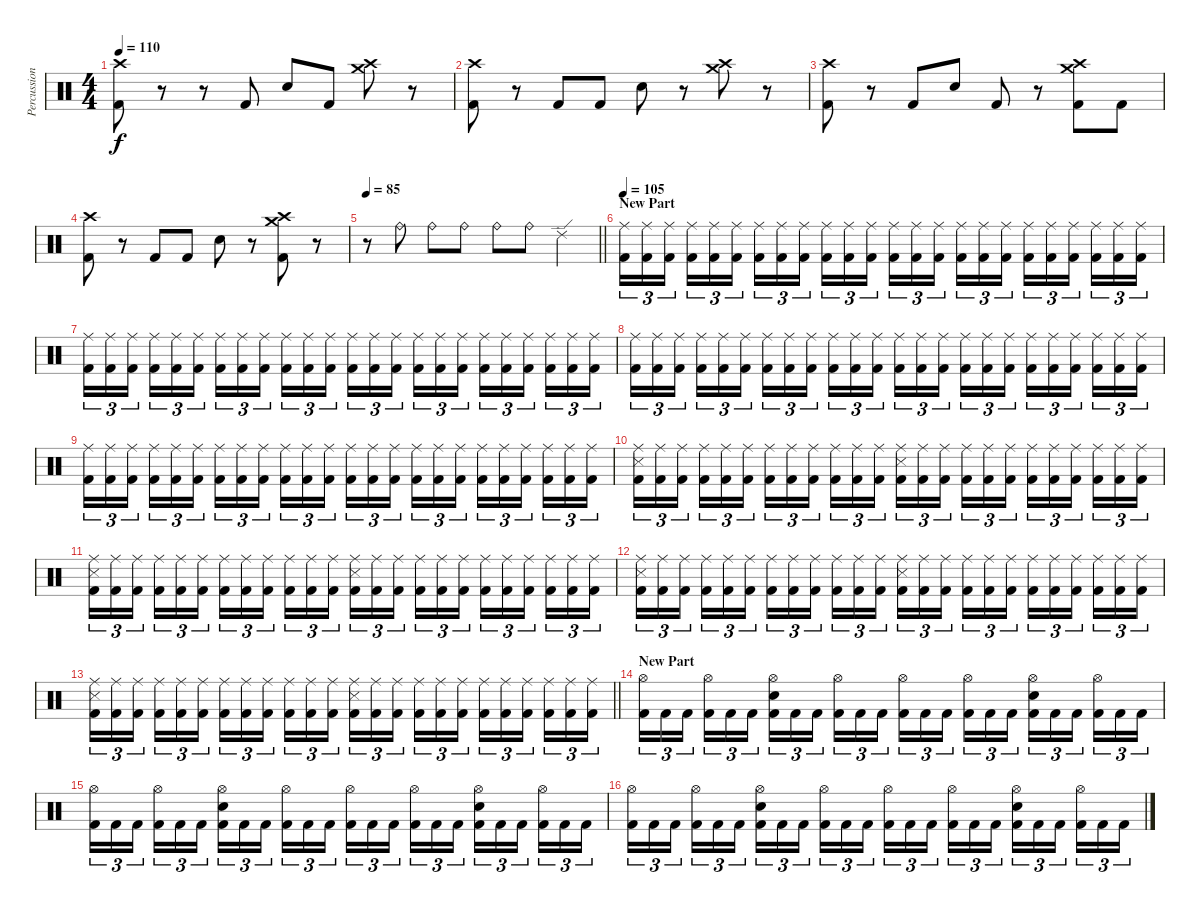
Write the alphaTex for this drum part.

\track ("Percussion" "Percussion") {instrument percussion}
\staff {score}
\articulation defaults
\ts (4 4)
\tempo 110
\clef neutral
\ks c
("Kick (hit) 2" "Crash high (hit)").8{dy f} r.8 r.8 "Kick (hit) 2".8 "Electric Snare (hit)".8 "Kick (hit) 2".8 ("Crash medium (hit)" "Crash high (hit)").8 r.8 |
("Kick (hit) 2" "Crash high (hit)").8 r.8 "Kick (hit) 2".8 "Kick (hit) 2".8 "Electric Snare (hit)".8 r.8 ("Crash medium (hit)" "Crash high (hit)").8 r.8 |
("Kick (hit) 2" "Crash high (hit)").8 r.8 "Kick (hit) 2".8 "Electric Snare (hit)".8 "Kick (hit) 2".8 r.8 ("Kick (hit) 2" "Crash medium (hit)" "Crash high (hit)").8 "Kick (hit) 2".8 |
("Kick (hit) 2" "Crash high (hit)").8 r.8 "Kick (hit) 2".8 "Kick (hit) 2".8 "Electric Snare (hit)".8 r.8 ("Kick (hit) 2" "Crash medium (hit)" "Crash high (hit)").8 r.8 |
\tempo 85
\barLineRight lightlight
r.8 "Ride (bell)".8 "Ride (bell)".8 "Ride (bell)".8 "Ride (bell)".8 "Ride (bell)".8 "Ride (edge) 2".4 |
\section ("" "New Part")
\tempo 105
("Ride (middle)" "Kick (hit) 2").16{tu (3 2)} ("Ride (middle)" "Kick (hit) 2").16{tu (3 2)} ("Ride (middle)" "Kick (hit) 2").16{tu (3 2) beam splitsecondary} ("Ride (middle)" "Kick (hit) 2").16{tu (3 2)} ("Ride (middle)" "Kick (hit) 2").16{tu (3 2)} ("Ride (middle)" "Kick (hit) 2").16{tu (3 2)} ("Ride (middle)" "Kick (hit) 2").16{tu (3 2)} ("Ride (middle)" "Kick (hit) 2").16{tu (3 2)} ("Ride (middle)" "Kick (hit) 2").16{tu (3 2) beam splitsecondary} ("Ride (middle)" "Kick (hit) 2").16{tu (3 2)} ("Ride (middle)" "Kick (hit) 2").16{tu (3 2)} ("Ride (middle)" "Kick (hit) 2").16{tu (3 2)} ("Ride (middle)" "Kick (hit) 2").16{tu (3 2)} ("Ride (middle)" "Kick (hit) 2").16{tu (3 2)} ("Ride (middle)" "Kick (hit) 2").16{tu (3 2) beam splitsecondary} ("Ride (middle)" "Kick (hit) 2").16{tu (3 2)} ("Ride (middle)" "Kick (hit) 2").16{tu (3 2)} ("Ride (middle)" "Kick (hit) 2").16{tu (3 2)} ("Ride (middle)" "Kick (hit) 2").16{tu (3 2)} ("Ride (middle)" "Kick (hit) 2").16{tu (3 2)} ("Ride (middle)" "Kick (hit) 2").16{tu (3 2) beam splitsecondary} ("Ride (middle)" "Kick (hit) 2").16{tu (3 2)} ("Ride (middle)" "Kick (hit) 2").16{tu (3 2)} ("Ride (middle)" "Kick (hit) 2").16{tu (3 2)} |
("Ride (middle)" "Kick (hit) 2").16{tu (3 2)} ("Ride (middle)" "Kick (hit) 2").16{tu (3 2)} ("Ride (middle)" "Kick (hit) 2").16{tu (3 2) beam splitsecondary} ("Ride (middle)" "Kick (hit) 2").16{tu (3 2)} ("Ride (middle)" "Kick (hit) 2").16{tu (3 2)} ("Ride (middle)" "Kick (hit) 2").16{tu (3 2)} ("Ride (middle)" "Kick (hit) 2").16{tu (3 2)} ("Ride (middle)" "Kick (hit) 2").16{tu (3 2)} ("Ride (middle)" "Kick (hit) 2").16{tu (3 2) beam splitsecondary} ("Ride (middle)" "Kick (hit) 2").16{tu (3 2)} ("Ride (middle)" "Kick (hit) 2").16{tu (3 2)} ("Ride (middle)" "Kick (hit) 2").16{tu (3 2)} ("Ride (middle)" "Kick (hit) 2").16{tu (3 2)} ("Ride (middle)" "Kick (hit) 2").16{tu (3 2)} ("Ride (middle)" "Kick (hit) 2").16{tu (3 2) beam splitsecondary} ("Ride (middle)" "Kick (hit) 2").16{tu (3 2)} ("Ride (middle)" "Kick (hit) 2").16{tu (3 2)} ("Ride (middle)" "Kick (hit) 2").16{tu (3 2)} ("Ride (middle)" "Kick (hit) 2").16{tu (3 2)} ("Ride (middle)" "Kick (hit) 2").16{tu (3 2)} ("Ride (middle)" "Kick (hit) 2").16{tu (3 2) beam splitsecondary} ("Ride (middle)" "Kick (hit) 2").16{tu (3 2)} ("Ride (middle)" "Kick (hit) 2").16{tu (3 2)} ("Ride (middle)" "Kick (hit) 2").16{tu (3 2)} |
("Ride (middle)" "Kick (hit) 2").16{tu (3 2)} ("Ride (middle)" "Kick (hit) 2").16{tu (3 2)} ("Ride (middle)" "Kick (hit) 2").16{tu (3 2) beam splitsecondary} ("Ride (middle)" "Kick (hit) 2").16{tu (3 2)} ("Ride (middle)" "Kick (hit) 2").16{tu (3 2)} ("Ride (middle)" "Kick (hit) 2").16{tu (3 2)} ("Ride (middle)" "Kick (hit) 2").16{tu (3 2)} ("Ride (middle)" "Kick (hit) 2").16{tu (3 2)} ("Ride (middle)" "Kick (hit) 2").16{tu (3 2) beam splitsecondary} ("Ride (middle)" "Kick (hit) 2").16{tu (3 2)} ("Ride (middle)" "Kick (hit) 2").16{tu (3 2)} ("Ride (middle)" "Kick (hit) 2").16{tu (3 2)} ("Ride (middle)" "Kick (hit) 2").16{tu (3 2)} ("Ride (middle)" "Kick (hit) 2").16{tu (3 2)} ("Ride (middle)" "Kick (hit) 2").16{tu (3 2) beam splitsecondary} ("Ride (middle)" "Kick (hit) 2").16{tu (3 2)} ("Ride (middle)" "Kick (hit) 2").16{tu (3 2)} ("Ride (middle)" "Kick (hit) 2").16{tu (3 2)} ("Ride (middle)" "Kick (hit) 2").16{tu (3 2)} ("Ride (middle)" "Kick (hit) 2").16{tu (3 2)} ("Ride (middle)" "Kick (hit) 2").16{tu (3 2) beam splitsecondary} ("Ride (middle)" "Kick (hit) 2").16{tu (3 2)} ("Ride (middle)" "Kick (hit) 2").16{tu (3 2)} ("Ride (middle)" "Kick (hit) 2").16{tu (3 2)} |
("Ride (middle)" "Kick (hit) 2").16{tu (3 2)} ("Ride (middle)" "Kick (hit) 2").16{tu (3 2)} ("Ride (middle)" "Kick (hit) 2").16{tu (3 2) beam splitsecondary} ("Ride (middle)" "Kick (hit) 2").16{tu (3 2)} ("Ride (middle)" "Kick (hit) 2").16{tu (3 2)} ("Ride (middle)" "Kick (hit) 2").16{tu (3 2)} ("Ride (middle)" "Kick (hit) 2").16{tu (3 2)} ("Ride (middle)" "Kick (hit) 2").16{tu (3 2)} ("Ride (middle)" "Kick (hit) 2").16{tu (3 2) beam splitsecondary} ("Ride (middle)" "Kick (hit) 2").16{tu (3 2)} ("Ride (middle)" "Kick (hit) 2").16{tu (3 2)} ("Ride (middle)" "Kick (hit) 2").16{tu (3 2)} ("Ride (middle)" "Kick (hit) 2").16{tu (3 2)} ("Ride (middle)" "Kick (hit) 2").16{tu (3 2)} ("Ride (middle)" "Kick (hit) 2").16{tu (3 2) beam splitsecondary} ("Ride (middle)" "Kick (hit) 2").16{tu (3 2)} ("Ride (middle)" "Kick (hit) 2").16{tu (3 2)} ("Ride (middle)" "Kick (hit) 2").16{tu (3 2)} ("Ride (middle)" "Kick (hit) 2").16{tu (3 2)} ("Ride (middle)" "Kick (hit) 2").16{tu (3 2)} ("Ride (middle)" "Kick (hit) 2").16{tu (3 2) beam splitsecondary} ("Ride (middle)" "Kick (hit) 2").16{tu (3 2)} ("Ride (middle)" "Kick (hit) 2").16{tu (3 2)} ("Ride (middle)" "Kick (hit) 2").16{tu (3 2)} |
("Ride (middle)" "Snare (side stick) 3" "Kick (hit) 2").16{tu (3 2)} ("Ride (middle)" "Kick (hit) 2").16{tu (3 2)} ("Ride (middle)" "Kick (hit) 2").16{tu (3 2) beam splitsecondary} ("Ride (middle)" "Kick (hit) 2").16{tu (3 2)} ("Ride (middle)" "Kick (hit) 2").16{tu (3 2)} ("Ride (middle)" "Kick (hit) 2").16{tu (3 2)} ("Ride (middle)" "Kick (hit) 2").16{tu (3 2)} ("Ride (middle)" "Kick (hit) 2").16{tu (3 2)} ("Ride (middle)" "Kick (hit) 2").16{tu (3 2) beam splitsecondary} ("Ride (middle)" "Kick (hit) 2").16{tu (3 2)} ("Ride (middle)" "Kick (hit) 2").16{tu (3 2)} ("Ride (middle)" "Kick (hit) 2").16{tu (3 2)} ("Ride (middle)" "Snare (side stick) 3" "Kick (hit) 2").16{tu (3 2)} ("Ride (middle)" "Kick (hit) 2").16{tu (3 2)} ("Ride (middle)" "Kick (hit) 2").16{tu (3 2) beam splitsecondary} ("Ride (middle)" "Kick (hit) 2").16{tu (3 2)} ("Ride (middle)" "Kick (hit) 2").16{tu (3 2)} ("Ride (middle)" "Kick (hit) 2").16{tu (3 2)} ("Ride (middle)" "Kick (hit) 2").16{tu (3 2)} ("Ride (middle)" "Kick (hit) 2").16{tu (3 2)} ("Ride (middle)" "Kick (hit) 2").16{tu (3 2) beam splitsecondary} ("Ride (middle)" "Kick (hit) 2").16{tu (3 2)} ("Ride (middle)" "Kick (hit) 2").16{tu (3 2)} ("Ride (middle)" "Kick (hit) 2").16{tu (3 2)} |
("Ride (middle)" "Snare (side stick) 3" "Kick (hit) 2").16{tu (3 2)} ("Ride (middle)" "Kick (hit) 2").16{tu (3 2)} ("Ride (middle)" "Kick (hit) 2").16{tu (3 2) beam splitsecondary} ("Ride (middle)" "Kick (hit) 2").16{tu (3 2)} ("Ride (middle)" "Kick (hit) 2").16{tu (3 2)} ("Ride (middle)" "Kick (hit) 2").16{tu (3 2)} ("Ride (middle)" "Kick (hit) 2").16{tu (3 2)} ("Ride (middle)" "Kick (hit) 2").16{tu (3 2)} ("Ride (middle)" "Kick (hit) 2").16{tu (3 2) beam splitsecondary} ("Ride (middle)" "Kick (hit) 2").16{tu (3 2)} ("Ride (middle)" "Kick (hit) 2").16{tu (3 2)} ("Ride (middle)" "Kick (hit) 2").16{tu (3 2)} ("Ride (middle)" "Snare (side stick) 3" "Kick (hit) 2").16{tu (3 2)} ("Ride (middle)" "Kick (hit) 2").16{tu (3 2)} ("Ride (middle)" "Kick (hit) 2").16{tu (3 2) beam splitsecondary} ("Ride (middle)" "Kick (hit) 2").16{tu (3 2)} ("Ride (middle)" "Kick (hit) 2").16{tu (3 2)} ("Ride (middle)" "Kick (hit) 2").16{tu (3 2)} ("Ride (middle)" "Kick (hit) 2").16{tu (3 2)} ("Ride (middle)" "Kick (hit) 2").16{tu (3 2)} ("Ride (middle)" "Kick (hit) 2").16{tu (3 2) beam splitsecondary} ("Ride (middle)" "Kick (hit) 2").16{tu (3 2)} ("Ride (middle)" "Kick (hit) 2").16{tu (3 2)} ("Ride (middle)" "Kick (hit) 2").16{tu (3 2)} |
("Ride (middle)" "Snare (side stick) 3" "Kick (hit) 2").16{tu (3 2)} ("Ride (middle)" "Kick (hit) 2").16{tu (3 2)} ("Ride (middle)" "Kick (hit) 2").16{tu (3 2) beam splitsecondary} ("Ride (middle)" "Kick (hit) 2").16{tu (3 2)} ("Ride (middle)" "Kick (hit) 2").16{tu (3 2)} ("Ride (middle)" "Kick (hit) 2").16{tu (3 2)} ("Ride (middle)" "Kick (hit) 2").16{tu (3 2)} ("Ride (middle)" "Kick (hit) 2").16{tu (3 2)} ("Ride (middle)" "Kick (hit) 2").16{tu (3 2) beam splitsecondary} ("Ride (middle)" "Kick (hit) 2").16{tu (3 2)} ("Ride (middle)" "Kick (hit) 2").16{tu (3 2)} ("Ride (middle)" "Kick (hit) 2").16{tu (3 2)} ("Ride (middle)" "Snare (side stick) 3" "Kick (hit) 2").16{tu (3 2)} ("Ride (middle)" "Kick (hit) 2").16{tu (3 2)} ("Ride (middle)" "Kick (hit) 2").16{tu (3 2) beam splitsecondary} ("Ride (middle)" "Kick (hit) 2").16{tu (3 2)} ("Ride (middle)" "Kick (hit) 2").16{tu (3 2)} ("Ride (middle)" "Kick (hit) 2").16{tu (3 2)} ("Ride (middle)" "Kick (hit) 2").16{tu (3 2)} ("Ride (middle)" "Kick (hit) 2").16{tu (3 2)} ("Ride (middle)" "Kick (hit) 2").16{tu (3 2) beam splitsecondary} ("Ride (middle)" "Kick (hit) 2").16{tu (3 2)} ("Ride (middle)" "Kick (hit) 2").16{tu (3 2)} ("Ride (middle)" "Kick (hit) 2").16{tu (3 2)} |
\barLineRight lightlight
("Ride (middle)" "Snare (side stick) 3" "Kick (hit) 2").16{tu (3 2)} ("Ride (middle)" "Kick (hit) 2").16{tu (3 2)} ("Ride (middle)" "Kick (hit) 2").16{tu (3 2) beam splitsecondary} ("Ride (middle)" "Kick (hit) 2").16{tu (3 2)} ("Ride (middle)" "Kick (hit) 2").16{tu (3 2)} ("Ride (middle)" "Kick (hit) 2").16{tu (3 2)} ("Ride (middle)" "Kick (hit) 2").16{tu (3 2)} ("Ride (middle)" "Kick (hit) 2").16{tu (3 2)} ("Ride (middle)" "Kick (hit) 2").16{tu (3 2) beam splitsecondary} ("Ride (middle)" "Kick (hit) 2").16{tu (3 2)} ("Ride (middle)" "Kick (hit) 2").16{tu (3 2)} ("Ride (middle)" "Kick (hit) 2").16{tu (3 2)} ("Ride (middle)" "Snare (side stick) 3" "Kick (hit) 2").16{tu (3 2)} ("Ride (middle)" "Kick (hit) 2").16{tu (3 2)} ("Ride (middle)" "Kick (hit) 2").16{tu (3 2) beam splitsecondary} ("Ride (middle)" "Kick (hit) 2").16{tu (3 2)} ("Ride (middle)" "Kick (hit) 2").16{tu (3 2)} ("Ride (middle)" "Kick (hit) 2").16{tu (3 2)} ("Ride (middle)" "Kick (hit) 2").16{tu (3 2)} ("Ride (middle)" "Kick (hit) 2").16{tu (3 2)} ("Ride (middle)" "Kick (hit) 2").16{tu (3 2) beam splitsecondary} ("Ride (middle)" "Kick (hit) 2").16{tu (3 2)} ("Ride (middle)" "Kick (hit) 2").16{tu (3 2)} ("Ride (middle)" "Kick (hit) 2").16{tu (3 2)} |
\section ("" "New Part")
("Hi-Hat (open)" "Kick (hit) 2").16{tu (3 2)} "Kick (hit) 2".16{tu (3 2)} "Kick (hit) 2".16{tu (3 2) beam splitsecondary} ("Hi-Hat (open)" "Kick (hit) 2").16{tu (3 2)} "Kick (hit) 2".16{tu (3 2)} "Kick (hit) 2".16{tu (3 2)} ("Hi-Hat (open)" "Electric Snare (hit)" "Kick (hit) 2").16{tu (3 2)} "Kick (hit) 2".16{tu (3 2)} "Kick (hit) 2".16{tu (3 2) beam splitsecondary} ("Hi-Hat (open)" "Kick (hit) 2").16{tu (3 2)} "Kick (hit) 2".16{tu (3 2)} "Kick (hit) 2".16{tu (3 2)} ("Hi-Hat (open)" "Kick (hit) 2").16{tu (3 2)} "Kick (hit) 2".16{tu (3 2)} "Kick (hit) 2".16{tu (3 2) beam splitsecondary} ("Hi-Hat (open)" "Kick (hit) 2").16{tu (3 2)} "Kick (hit) 2".16{tu (3 2)} "Kick (hit) 2".16{tu (3 2)} ("Hi-Hat (open)" "Electric Snare (hit)" "Kick (hit) 2").16{tu (3 2)} "Kick (hit) 2".16{tu (3 2)} "Kick (hit) 2".16{tu (3 2) beam splitsecondary} ("Hi-Hat (open)" "Kick (hit) 2").16{tu (3 2)} "Kick (hit) 2".16{tu (3 2)} "Kick (hit) 2".16{tu (3 2)} |
("Hi-Hat (open)" "Kick (hit) 2").16{tu (3 2)} "Kick (hit) 2".16{tu (3 2)} "Kick (hit) 2".16{tu (3 2) beam splitsecondary} ("Hi-Hat (open)" "Kick (hit) 2").16{tu (3 2)} "Kick (hit) 2".16{tu (3 2)} "Kick (hit) 2".16{tu (3 2)} ("Hi-Hat (open)" "Electric Snare (hit)" "Kick (hit) 2").16{tu (3 2)} "Kick (hit) 2".16{tu (3 2)} "Kick (hit) 2".16{tu (3 2) beam splitsecondary} ("Hi-Hat (open)" "Kick (hit) 2").16{tu (3 2)} "Kick (hit) 2".16{tu (3 2)} "Kick (hit) 2".16{tu (3 2)} ("Hi-Hat (open)" "Kick (hit) 2").16{tu (3 2)} "Kick (hit) 2".16{tu (3 2)} "Kick (hit) 2".16{tu (3 2) beam splitsecondary} ("Hi-Hat (open)" "Kick (hit) 2").16{tu (3 2)} "Kick (hit) 2".16{tu (3 2)} "Kick (hit) 2".16{tu (3 2)} ("Hi-Hat (open)" "Electric Snare (hit)" "Kick (hit) 2").16{tu (3 2)} "Kick (hit) 2".16{tu (3 2)} "Kick (hit) 2".16{tu (3 2) beam splitsecondary} ("Hi-Hat (open)" "Kick (hit) 2").16{tu (3 2)} "Kick (hit) 2".16{tu (3 2)} "Kick (hit) 2".16{tu (3 2)} |
("Hi-Hat (open)" "Kick (hit) 2").16{tu (3 2)} "Kick (hit) 2".16{tu (3 2)} "Kick (hit) 2".16{tu (3 2) beam splitsecondary} ("Hi-Hat (open)" "Kick (hit) 2").16{tu (3 2)} "Kick (hit) 2".16{tu (3 2)} "Kick (hit) 2".16{tu (3 2)} ("Hi-Hat (open)" "Electric Snare (hit)" "Kick (hit) 2").16{tu (3 2)} "Kick (hit) 2".16{tu (3 2)} "Kick (hit) 2".16{tu (3 2) beam splitsecondary} ("Hi-Hat (open)" "Kick (hit) 2").16{tu (3 2)} "Kick (hit) 2".16{tu (3 2)} "Kick (hit) 2".16{tu (3 2)} ("Hi-Hat (open)" "Kick (hit) 2").16{tu (3 2)} "Kick (hit) 2".16{tu (3 2)} "Kick (hit) 2".16{tu (3 2) beam splitsecondary} ("Hi-Hat (open)" "Kick (hit) 2").16{tu (3 2)} "Kick (hit) 2".16{tu (3 2)} "Kick (hit) 2".16{tu (3 2)} ("Hi-Hat (open)" "Electric Snare (hit)" "Kick (hit) 2").16{tu (3 2)} "Kick (hit) 2".16{tu (3 2)} "Kick (hit) 2".16{tu (3 2) beam splitsecondary} ("Hi-Hat (open)" "Kick (hit) 2").16{tu (3 2)} "Kick (hit) 2".16{tu (3 2)} "Kick (hit) 2".16{tu (3 2)}
